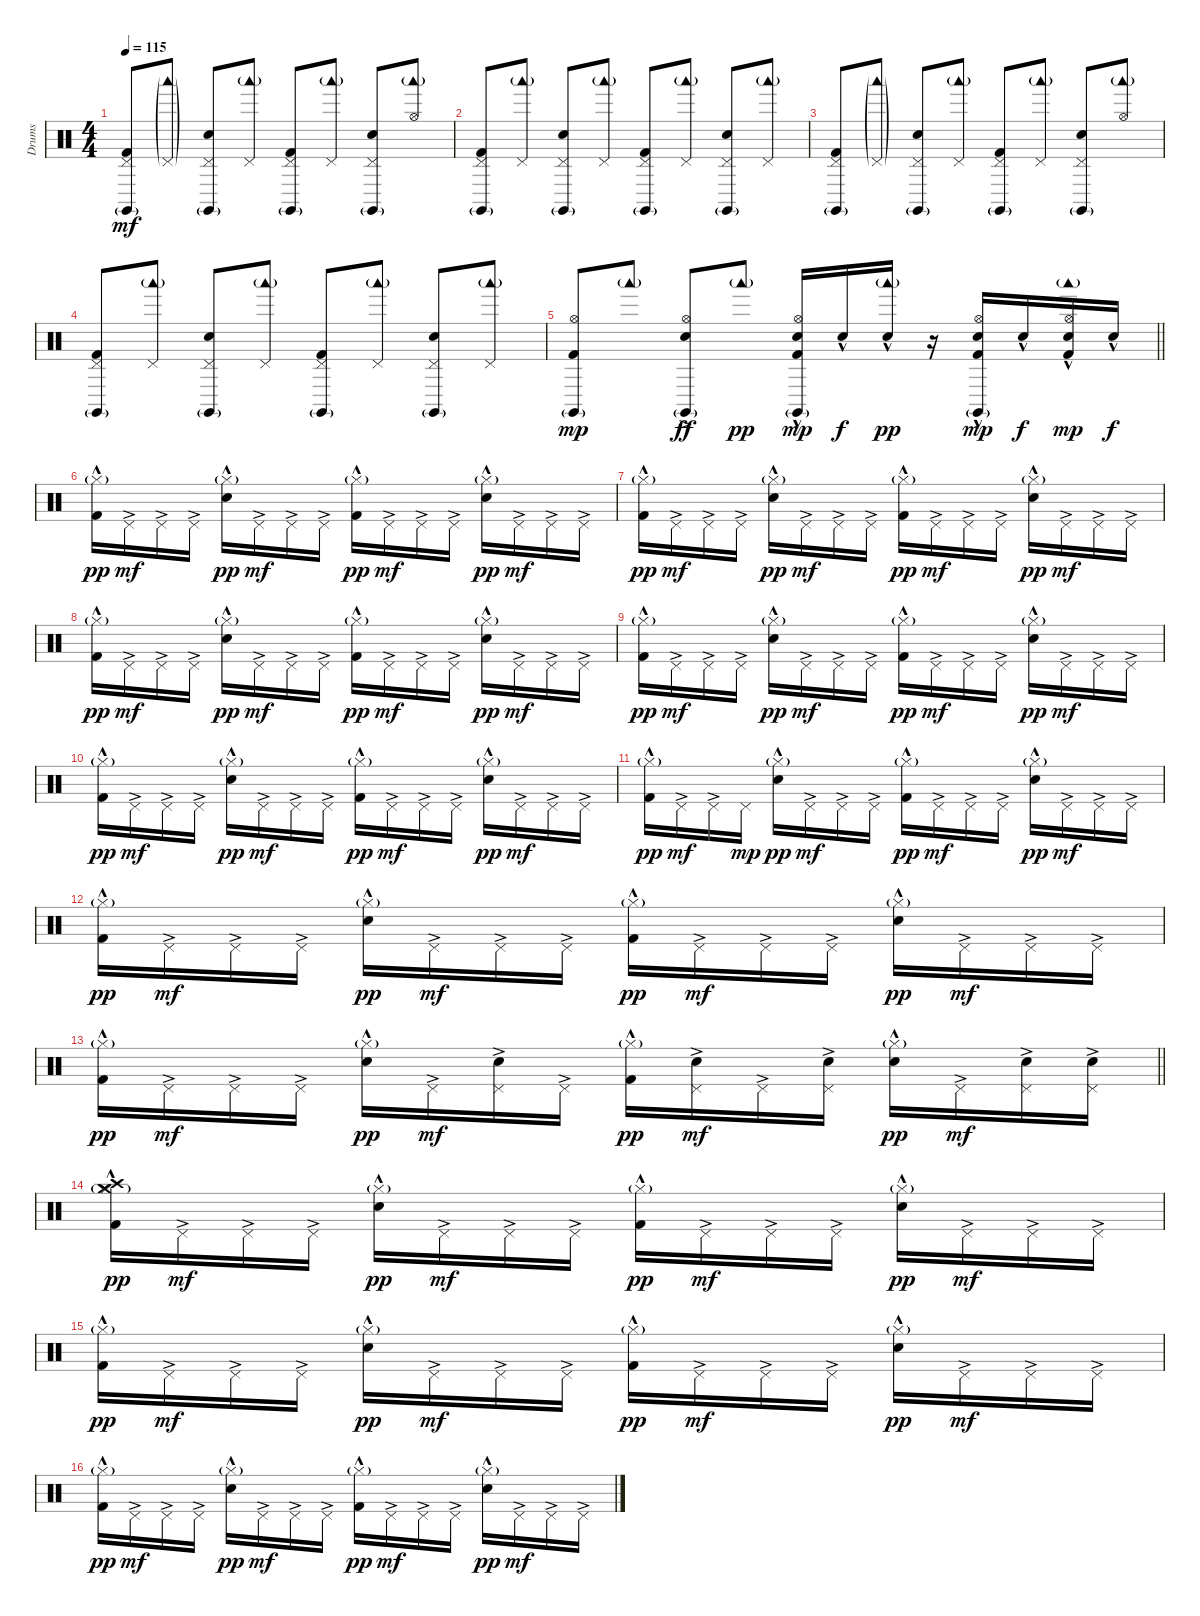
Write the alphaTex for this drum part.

\track ("Drums" "Drums") {instrument percussion}
\staff {score}
\articulation defaults
\ts (4 4)
\tempo 115
\clef neutral
\ks c
("Claves (hit)"{g} "Pedal Hi-Hat (hit)" "Kick (hit) 2").8{dy mf} ("Woodblock low (hit)"{g} "Pedal Hi-Hat (hit)"{g}).8 ("Claves (hit)"{g} "Pedal Hi-Hat (hit)" "Electric Snare (hit)").8 ("Woodblock low (hit)"{g} "Pedal Hi-Hat (hit)").8 ("Claves (hit)"{g} "Pedal Hi-Hat (hit)" "Kick (hit) 2").8 ("Woodblock low (hit)"{g} "Pedal Hi-Hat (hit)").8 ("Claves (hit)"{g} "Pedal Hi-Hat (hit)" "Electric Snare (hit)").8 ("Woodblock low (hit)"{g} "Hi-Hat (open)").8 |
("Claves (hit)"{g} "Pedal Hi-Hat (hit)" "Kick (hit) 2").8 ("Woodblock low (hit)"{g} "Pedal Hi-Hat (hit)").8 ("Claves (hit)"{g} "Pedal Hi-Hat (hit)" "Electric Snare (hit)").8 ("Woodblock low (hit)"{g} "Pedal Hi-Hat (hit)").8 ("Claves (hit)"{g} "Pedal Hi-Hat (hit)" "Kick (hit) 2").8 ("Woodblock low (hit)"{g} "Pedal Hi-Hat (hit)").8 ("Claves (hit)"{g} "Pedal Hi-Hat (hit)" "Electric Snare (hit)").8 ("Woodblock low (hit)"{g} "Pedal Hi-Hat (hit)").8 |
("Claves (hit)"{g} "Pedal Hi-Hat (hit)" "Kick (hit) 2").8 ("Woodblock low (hit)"{g} "Pedal Hi-Hat (hit)"{g}).8 ("Claves (hit)"{g} "Pedal Hi-Hat (hit)" "Electric Snare (hit)").8 ("Woodblock low (hit)"{g} "Pedal Hi-Hat (hit)").8 ("Claves (hit)"{g} "Pedal Hi-Hat (hit)" "Kick (hit) 2").8 ("Woodblock low (hit)"{g} "Pedal Hi-Hat (hit)").8 ("Claves (hit)"{g} "Pedal Hi-Hat (hit)" "Electric Snare (hit)").8 ("Woodblock low (hit)"{g} "Hi-Hat (open)").8 |
("Claves (hit)"{g} "Pedal Hi-Hat (hit)" "Kick (hit) 2").8 ("Woodblock low (hit)"{g} "Pedal Hi-Hat (hit)").8 ("Claves (hit)"{g} "Pedal Hi-Hat (hit)" "Electric Snare (hit)").8 ("Woodblock low (hit)"{g} "Pedal Hi-Hat (hit)").8 ("Claves (hit)"{g} "Pedal Hi-Hat (hit)" "Kick (hit) 2").8 ("Woodblock low (hit)"{g} "Pedal Hi-Hat (hit)").8 ("Claves (hit)"{g} "Pedal Hi-Hat (hit)" "Electric Snare (hit)").8 ("Woodblock low (hit)"{g} "Pedal Hi-Hat (hit)").8 |
\barLineRight lightlight
("Claves (hit)"{g} "Hi-Hat (open)" "Kick (hit) 2").8{dy mp} "Woodblock low (hit)"{g}.8 ("Claves (hit)"{g} "Hi-Hat (open)" "Electric Snare (hit)"{ac}).8{dy ff} "Woodblock low (hit)"{g}.8{dy pp} ("Claves (hit)"{g} "Hi-Hat (open)" "Electric Snare (hit)"{hac} "Kick (hit) 2").16{dy mp} "Electric Snare (hit)"{hac}.16{dy f} ("Woodblock low (hit)"{g} "Electric Snare (hit)"{hac}).16{dy pp} r.16 ("Claves (hit)"{g} "Hi-Hat (open)" "Electric Snare (hit)"{hac} "Kick (hit) 2").16{dy mp} "Electric Snare (hit)"{hac}.16{dy f} ("Woodblock low (hit)"{g} "Hi-Hat (open)" "Electric Snare (hit)"{hac} "Kick (hit) 2").16{dy mp} "Electric Snare (hit)"{hac}.16{dy f} |
("Hi-Hat (closed)"{g} "Kick (hit) 2"{hac}).16{dy pp} "Pedal Hi-Hat (hit)"{ac}.16{dy mf} "Pedal Hi-Hat (hit)"{ac}.16 "Pedal Hi-Hat (hit)"{ac}.16 ("Hi-Hat (closed)"{g} "Electric Snare (hit)"{hac}).16{dy pp} "Pedal Hi-Hat (hit)"{ac}.16{dy mf} "Pedal Hi-Hat (hit)"{ac}.16 "Pedal Hi-Hat (hit)"{ac}.16 ("Hi-Hat (closed)"{g} "Kick (hit) 2"{hac}).16{dy pp} "Pedal Hi-Hat (hit)"{ac}.16{dy mf} "Pedal Hi-Hat (hit)"{ac}.16 "Pedal Hi-Hat (hit)"{ac}.16 ("Hi-Hat (closed)"{g} "Electric Snare (hit)"{hac}).16{dy pp} "Pedal Hi-Hat (hit)"{ac}.16{dy mf} "Pedal Hi-Hat (hit)"{ac}.16 "Pedal Hi-Hat (hit)"{ac}.16 |
("Hi-Hat (closed)"{g} "Kick (hit) 2"{hac}).16{dy pp} "Pedal Hi-Hat (hit)"{ac}.16{dy mf} "Pedal Hi-Hat (hit)"{ac}.16 "Pedal Hi-Hat (hit)"{ac}.16 ("Hi-Hat (closed)"{g} "Electric Snare (hit)"{hac}).16{dy pp} "Pedal Hi-Hat (hit)"{ac}.16{dy mf} "Pedal Hi-Hat (hit)"{ac}.16 "Pedal Hi-Hat (hit)"{ac}.16 ("Hi-Hat (closed)"{g} "Kick (hit) 2"{hac}).16{dy pp} "Pedal Hi-Hat (hit)"{ac}.16{dy mf} "Pedal Hi-Hat (hit)"{ac}.16 "Pedal Hi-Hat (hit)"{ac}.16 ("Hi-Hat (closed)"{g} "Electric Snare (hit)"{hac}).16{dy pp} "Pedal Hi-Hat (hit)"{ac}.16{dy mf} "Pedal Hi-Hat (hit)"{ac}.16 "Pedal Hi-Hat (hit)"{ac}.16 |
("Hi-Hat (closed)"{g} "Kick (hit) 2"{hac}).16{dy pp} "Pedal Hi-Hat (hit)"{ac}.16{dy mf} "Pedal Hi-Hat (hit)"{ac}.16 "Pedal Hi-Hat (hit)"{ac}.16 ("Hi-Hat (closed)"{g} "Electric Snare (hit)"{hac}).16{dy pp} "Pedal Hi-Hat (hit)"{ac}.16{dy mf} "Pedal Hi-Hat (hit)"{ac}.16 "Pedal Hi-Hat (hit)"{ac}.16 ("Hi-Hat (closed)"{g} "Kick (hit) 2"{hac}).16{dy pp} "Pedal Hi-Hat (hit)"{ac}.16{dy mf} "Pedal Hi-Hat (hit)"{ac}.16 "Pedal Hi-Hat (hit)"{ac}.16 ("Hi-Hat (closed)"{g} "Electric Snare (hit)"{hac}).16{dy pp} "Pedal Hi-Hat (hit)"{ac}.16{dy mf} "Pedal Hi-Hat (hit)"{ac}.16 "Pedal Hi-Hat (hit)"{ac}.16 |
("Hi-Hat (closed)"{g} "Kick (hit) 2"{hac}).16{dy pp} "Pedal Hi-Hat (hit)"{ac}.16{dy mf} "Pedal Hi-Hat (hit)"{ac}.16 "Pedal Hi-Hat (hit)"{ac}.16 ("Hi-Hat (closed)"{g} "Electric Snare (hit)"{hac}).16{dy pp} "Pedal Hi-Hat (hit)"{ac}.16{dy mf} "Pedal Hi-Hat (hit)"{ac}.16 "Pedal Hi-Hat (hit)"{ac}.16 ("Hi-Hat (closed)"{g} "Kick (hit) 2"{hac}).16{dy pp} "Pedal Hi-Hat (hit)"{ac}.16{dy mf} "Pedal Hi-Hat (hit)"{ac}.16 "Pedal Hi-Hat (hit)"{ac}.16 ("Hi-Hat (closed)"{g} "Electric Snare (hit)"{hac}).16{dy pp} "Pedal Hi-Hat (hit)"{ac}.16{dy mf} "Pedal Hi-Hat (hit)"{ac}.16 "Pedal Hi-Hat (hit)"{ac}.16 |
("Hi-Hat (closed)"{g} "Kick (hit) 2"{hac}).16{dy pp} "Pedal Hi-Hat (hit)"{ac}.16{dy mf} "Pedal Hi-Hat (hit)"{ac}.16 "Pedal Hi-Hat (hit)"{ac}.16 ("Hi-Hat (closed)"{g} "Electric Snare (hit)"{hac}).16{dy pp} "Pedal Hi-Hat (hit)"{ac}.16{dy mf} "Pedal Hi-Hat (hit)"{ac}.16 "Pedal Hi-Hat (hit)"{ac}.16 ("Hi-Hat (closed)"{g} "Kick (hit) 2"{hac}).16{dy pp} "Pedal Hi-Hat (hit)"{ac}.16{dy mf} "Pedal Hi-Hat (hit)"{ac}.16 "Pedal Hi-Hat (hit)"{ac}.16 ("Hi-Hat (closed)"{g} "Electric Snare (hit)"{hac}).16{dy pp} "Pedal Hi-Hat (hit)"{ac}.16{dy mf} "Pedal Hi-Hat (hit)"{ac}.16 "Pedal Hi-Hat (hit)"{ac}.16 |
("Hi-Hat (closed)"{g} "Kick (hit) 2"{hac}).16{dy pp} "Pedal Hi-Hat (hit)"{ac}.16{dy mf} "Pedal Hi-Hat (hit)"{ac}.16 "Pedal Hi-Hat (hit)".16{dy mp} ("Hi-Hat (closed)"{g} "Electric Snare (hit)"{hac}).16{dy pp} "Pedal Hi-Hat (hit)"{ac}.16{dy mf} "Pedal Hi-Hat (hit)"{ac}.16 "Pedal Hi-Hat (hit)"{ac}.16 ("Hi-Hat (closed)"{g} "Kick (hit) 2"{hac}).16{dy pp} "Pedal Hi-Hat (hit)"{ac}.16{dy mf} "Pedal Hi-Hat (hit)"{ac}.16 "Pedal Hi-Hat (hit)"{ac}.16 ("Hi-Hat (closed)"{g} "Electric Snare (hit)"{hac}).16{dy pp} "Pedal Hi-Hat (hit)"{ac}.16{dy mf} "Pedal Hi-Hat (hit)"{ac}.16 "Pedal Hi-Hat (hit)"{ac}.16 |
("Hi-Hat (closed)"{g} "Kick (hit) 2"{hac}).16{dy pp} "Pedal Hi-Hat (hit)"{ac}.16{dy mf} "Pedal Hi-Hat (hit)"{ac}.16 "Pedal Hi-Hat (hit)"{ac}.16 ("Hi-Hat (closed)"{g} "Electric Snare (hit)"{hac}).16{dy pp} "Pedal Hi-Hat (hit)"{ac}.16{dy mf} "Pedal Hi-Hat (hit)"{ac}.16 "Pedal Hi-Hat (hit)"{ac}.16 ("Hi-Hat (closed)"{g} "Kick (hit) 2"{hac}).16{dy pp} "Pedal Hi-Hat (hit)"{ac}.16{dy mf} "Pedal Hi-Hat (hit)"{ac}.16 "Pedal Hi-Hat (hit)"{ac}.16 ("Hi-Hat (closed)"{g} "Electric Snare (hit)"{hac}).16{dy pp} "Pedal Hi-Hat (hit)"{ac}.16{dy mf} "Pedal Hi-Hat (hit)"{ac}.16 "Pedal Hi-Hat (hit)"{ac}.16 |
\barLineRight lightlight
("Hi-Hat (closed)"{g} "Kick (hit) 2"{hac}).16{dy pp} "Pedal Hi-Hat (hit)"{ac}.16{dy mf} "Pedal Hi-Hat (hit)"{ac}.16 "Pedal Hi-Hat (hit)"{ac}.16 ("Hi-Hat (closed)"{g} "Electric Snare (hit)"{hac}).16{dy pp} "Pedal Hi-Hat (hit)"{ac}.16{dy mf} ("Pedal Hi-Hat (hit)"{ac} "Electric Snare (hit)").16 "Pedal Hi-Hat (hit)"{ac}.16 ("Hi-Hat (closed)"{g} "Kick (hit) 2"{hac}).16{dy pp} ("Pedal Hi-Hat (hit)"{ac} "Electric Snare (hit)").16{dy mf} "Pedal Hi-Hat (hit)"{ac}.16 ("Pedal Hi-Hat (hit)"{ac} "Electric Snare (hit)").16 ("Hi-Hat (closed)"{g} "Electric Snare (hit)"{hac}).16{dy pp} "Pedal Hi-Hat (hit)"{ac}.16{dy mf} ("Pedal Hi-Hat (hit)"{ac} "Electric Snare (hit)").16 ("Pedal Hi-Hat (hit)"{ac} "Electric Snare (hit)").16 |
("Crash high (hit)" "Crash medium (hit)" "Hi-Hat (closed)"{g} "Kick (hit) 2"{hac}).16{dy pp} "Pedal Hi-Hat (hit)"{ac}.16{dy mf} "Pedal Hi-Hat (hit)"{ac}.16 "Pedal Hi-Hat (hit)"{ac}.16 ("Hi-Hat (closed)"{g} "Electric Snare (hit)"{hac}).16{dy pp} "Pedal Hi-Hat (hit)"{ac}.16{dy mf} "Pedal Hi-Hat (hit)"{ac}.16 "Pedal Hi-Hat (hit)"{ac}.16 ("Hi-Hat (closed)"{g} "Kick (hit) 2"{hac}).16{dy pp} "Pedal Hi-Hat (hit)"{ac}.16{dy mf} "Pedal Hi-Hat (hit)"{ac}.16 "Pedal Hi-Hat (hit)"{ac}.16 ("Hi-Hat (closed)"{g} "Electric Snare (hit)"{hac}).16{dy pp} "Pedal Hi-Hat (hit)"{ac}.16{dy mf} "Pedal Hi-Hat (hit)"{ac}.16 "Pedal Hi-Hat (hit)"{ac}.16 |
("Hi-Hat (closed)"{g} "Kick (hit) 2"{hac}).16{dy pp} "Pedal Hi-Hat (hit)"{ac}.16{dy mf} "Pedal Hi-Hat (hit)"{ac}.16 "Pedal Hi-Hat (hit)"{ac}.16 ("Hi-Hat (closed)"{g} "Electric Snare (hit)"{hac}).16{dy pp} "Pedal Hi-Hat (hit)"{ac}.16{dy mf} "Pedal Hi-Hat (hit)"{ac}.16 "Pedal Hi-Hat (hit)"{ac}.16 ("Hi-Hat (closed)"{g} "Kick (hit) 2"{hac}).16{dy pp} "Pedal Hi-Hat (hit)"{ac}.16{dy mf} "Pedal Hi-Hat (hit)"{ac}.16 "Pedal Hi-Hat (hit)"{ac}.16 ("Hi-Hat (closed)"{g} "Electric Snare (hit)"{hac}).16{dy pp} "Pedal Hi-Hat (hit)"{ac}.16{dy mf} "Pedal Hi-Hat (hit)"{ac}.16 "Pedal Hi-Hat (hit)"{ac}.16 |
("Hi-Hat (closed)"{g} "Kick (hit) 2"{hac}).16{dy pp} "Pedal Hi-Hat (hit)"{ac}.16{dy mf} "Pedal Hi-Hat (hit)"{ac}.16 "Pedal Hi-Hat (hit)"{ac}.16 ("Hi-Hat (closed)"{g} "Electric Snare (hit)"{hac}).16{dy pp} "Pedal Hi-Hat (hit)"{ac}.16{dy mf} "Pedal Hi-Hat (hit)"{ac}.16 "Pedal Hi-Hat (hit)"{ac}.16 ("Hi-Hat (closed)"{g} "Kick (hit) 2"{hac}).16{dy pp} "Pedal Hi-Hat (hit)"{ac}.16{dy mf} "Pedal Hi-Hat (hit)"{ac}.16 "Pedal Hi-Hat (hit)"{ac}.16 ("Hi-Hat (closed)"{g} "Electric Snare (hit)"{hac}).16{dy pp} "Pedal Hi-Hat (hit)"{ac}.16{dy mf} "Pedal Hi-Hat (hit)"{ac}.16 "Pedal Hi-Hat (hit)"{ac}.16
